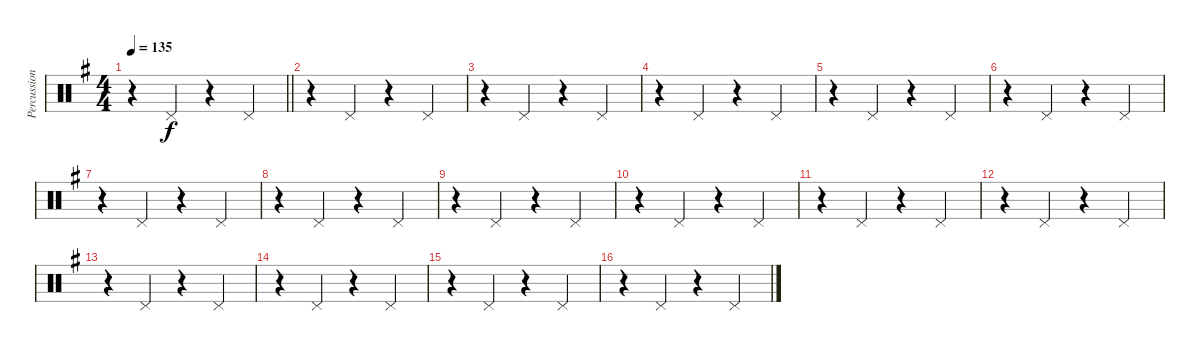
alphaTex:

\track ("Percussion" "Percussion") {instrument percussion}
\staff {score}
\articulation defaults
\ts (4 4)
\tempo 135
\clef neutral
\barLineRight lightlight
\ks g
r.4{dy f} "Pedal Hi-Hat (hit)".4 r.4 "Pedal Hi-Hat (hit)".4 |
r.4 "Pedal Hi-Hat (hit)".4 r.4 "Pedal Hi-Hat (hit)".4 |
r.4 "Pedal Hi-Hat (hit)".4 r.4 "Pedal Hi-Hat (hit)".4 |
r.4 "Pedal Hi-Hat (hit)".4 r.4 "Pedal Hi-Hat (hit)".4 |
r.4 "Pedal Hi-Hat (hit)".4 r.4 "Pedal Hi-Hat (hit)".4 |
r.4 "Pedal Hi-Hat (hit)".4 r.4 "Pedal Hi-Hat (hit)".4 |
r.4 "Pedal Hi-Hat (hit)".4 r.4 "Pedal Hi-Hat (hit)".4 |
r.4 "Pedal Hi-Hat (hit)".4 r.4 "Pedal Hi-Hat (hit)".4 |
r.4 "Pedal Hi-Hat (hit)".4 r.4 "Pedal Hi-Hat (hit)".4 |
r.4 "Pedal Hi-Hat (hit)".4 r.4 "Pedal Hi-Hat (hit)".4 |
r.4 "Pedal Hi-Hat (hit)".4 r.4 "Pedal Hi-Hat (hit)".4 |
r.4 "Pedal Hi-Hat (hit)".4 r.4 "Pedal Hi-Hat (hit)".4 |
r.4 "Pedal Hi-Hat (hit)".4 r.4 "Pedal Hi-Hat (hit)".4 |
r.4 "Pedal Hi-Hat (hit)".4 r.4 "Pedal Hi-Hat (hit)".4 |
r.4 "Pedal Hi-Hat (hit)".4 r.4 "Pedal Hi-Hat (hit)".4 |
r.4 "Pedal Hi-Hat (hit)".4 r.4 "Pedal Hi-Hat (hit)".4
